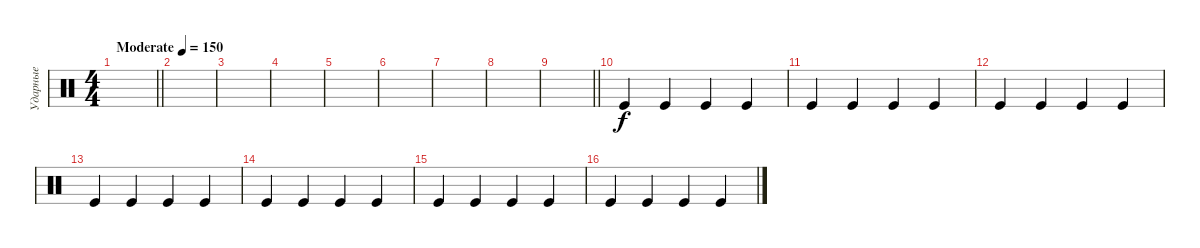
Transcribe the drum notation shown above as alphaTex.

\track ("Ударные" "Ударные") {instrument percussion}
\staff {score}
\articulation defaults
\ts (4 4)
\tempo (150 "Moderate")
\clef neutral
\barLineRight lightlight
\ks c
|
|
|
|
|
|
|
|
\barLineRight lightlight
|
"Kick (hit)".4 "Kick (hit)".4 "Kick (hit)".4 "Kick (hit)".4 |
"Kick (hit)".4 "Kick (hit)".4 "Kick (hit)".4 "Kick (hit)".4 |
"Kick (hit)".4 "Kick (hit)".4 "Kick (hit)".4 "Kick (hit)".4 |
"Kick (hit)".4 "Kick (hit)".4 "Kick (hit)".4 "Kick (hit)".4 |
"Kick (hit)".4 "Kick (hit)".4 "Kick (hit)".4 "Kick (hit)".4 |
"Kick (hit)".4 "Kick (hit)".4 "Kick (hit)".4 "Kick (hit)".4 |
"Kick (hit)".4 "Kick (hit)".4 "Kick (hit)".4 "Kick (hit)".4
